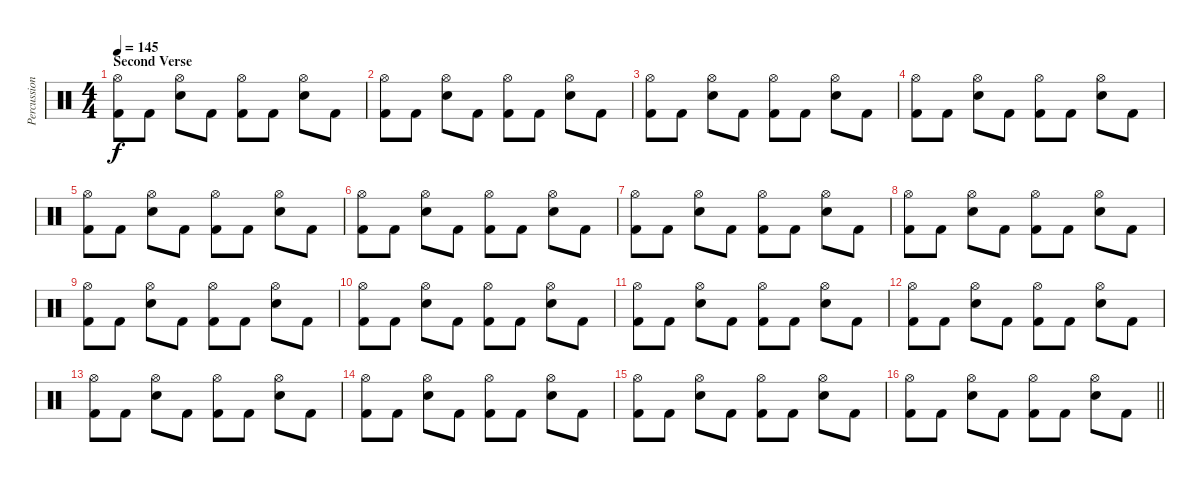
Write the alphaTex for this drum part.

\track ("Percussion" "Percussion") {instrument percussion}
\staff {score}
\articulation defaults
\ts (4 4)
\section ("" "Second Verse")
\tempo 145
\clef neutral
\ks c
("Hi-Hat (open)" "Kick (hit) 2").8{dy f} "Kick (hit) 2".8 ("Hi-Hat (open)" "Electric Snare (hit)").8 "Kick (hit) 2".8 ("Hi-Hat (open)" "Kick (hit) 2").8 "Kick (hit) 2".8 ("Hi-Hat (open)" "Electric Snare (hit)").8 "Kick (hit) 2".8 |
("Hi-Hat (open)" "Kick (hit) 2").8 "Kick (hit) 2".8 ("Hi-Hat (open)" "Electric Snare (hit)").8 "Kick (hit) 2".8 ("Hi-Hat (open)" "Kick (hit) 2").8 "Kick (hit) 2".8 ("Hi-Hat (open)" "Electric Snare (hit)").8 "Kick (hit) 2".8 |
("Hi-Hat (open)" "Kick (hit) 2").8 "Kick (hit) 2".8 ("Hi-Hat (open)" "Electric Snare (hit)").8 "Kick (hit) 2".8 ("Hi-Hat (open)" "Kick (hit) 2").8 "Kick (hit) 2".8 ("Hi-Hat (open)" "Electric Snare (hit)").8 "Kick (hit) 2".8 |
("Hi-Hat (open)" "Kick (hit) 2").8 "Kick (hit) 2".8 ("Hi-Hat (open)" "Electric Snare (hit)").8 "Kick (hit) 2".8 ("Hi-Hat (open)" "Kick (hit) 2").8 "Kick (hit) 2".8 ("Hi-Hat (open)" "Electric Snare (hit)").8 "Kick (hit) 2".8 |
("Hi-Hat (open)" "Kick (hit) 2").8 "Kick (hit) 2".8 ("Hi-Hat (open)" "Electric Snare (hit)").8 "Kick (hit) 2".8 ("Hi-Hat (open)" "Kick (hit) 2").8 "Kick (hit) 2".8 ("Hi-Hat (open)" "Electric Snare (hit)").8 "Kick (hit) 2".8 |
("Hi-Hat (open)" "Kick (hit) 2").8 "Kick (hit) 2".8 ("Hi-Hat (open)" "Electric Snare (hit)").8 "Kick (hit) 2".8 ("Hi-Hat (open)" "Kick (hit) 2").8 "Kick (hit) 2".8 ("Hi-Hat (open)" "Electric Snare (hit)").8 "Kick (hit) 2".8 |
("Hi-Hat (open)" "Kick (hit) 2").8 "Kick (hit) 2".8 ("Hi-Hat (open)" "Electric Snare (hit)").8 "Kick (hit) 2".8 ("Hi-Hat (open)" "Kick (hit) 2").8 "Kick (hit) 2".8 ("Hi-Hat (open)" "Electric Snare (hit)").8 "Kick (hit) 2".8 |
("Hi-Hat (open)" "Kick (hit) 2").8 "Kick (hit) 2".8 ("Hi-Hat (open)" "Electric Snare (hit)").8 "Kick (hit) 2".8 ("Hi-Hat (open)" "Kick (hit) 2").8 "Kick (hit) 2".8 ("Hi-Hat (open)" "Electric Snare (hit)").8 "Kick (hit) 2".8 |
("Hi-Hat (open)" "Kick (hit) 2").8 "Kick (hit) 2".8 ("Hi-Hat (open)" "Electric Snare (hit)").8 "Kick (hit) 2".8 ("Hi-Hat (open)" "Kick (hit) 2").8 "Kick (hit) 2".8 ("Hi-Hat (open)" "Electric Snare (hit)").8 "Kick (hit) 2".8 |
("Hi-Hat (open)" "Kick (hit) 2").8 "Kick (hit) 2".8 ("Hi-Hat (open)" "Electric Snare (hit)").8 "Kick (hit) 2".8 ("Hi-Hat (open)" "Kick (hit) 2").8 "Kick (hit) 2".8 ("Hi-Hat (open)" "Electric Snare (hit)").8 "Kick (hit) 2".8 |
("Hi-Hat (open)" "Kick (hit) 2").8 "Kick (hit) 2".8 ("Hi-Hat (open)" "Electric Snare (hit)").8 "Kick (hit) 2".8 ("Hi-Hat (open)" "Kick (hit) 2").8 "Kick (hit) 2".8 ("Hi-Hat (open)" "Electric Snare (hit)").8 "Kick (hit) 2".8 |
("Hi-Hat (open)" "Kick (hit) 2").8 "Kick (hit) 2".8 ("Hi-Hat (open)" "Electric Snare (hit)").8 "Kick (hit) 2".8 ("Hi-Hat (open)" "Kick (hit) 2").8 "Kick (hit) 2".8 ("Hi-Hat (open)" "Electric Snare (hit)").8 "Kick (hit) 2".8 |
("Hi-Hat (open)" "Kick (hit) 2").8 "Kick (hit) 2".8 ("Hi-Hat (open)" "Electric Snare (hit)").8 "Kick (hit) 2".8 ("Hi-Hat (open)" "Kick (hit) 2").8 "Kick (hit) 2".8 ("Hi-Hat (open)" "Electric Snare (hit)").8 "Kick (hit) 2".8 |
("Hi-Hat (open)" "Kick (hit) 2").8 "Kick (hit) 2".8 ("Hi-Hat (open)" "Electric Snare (hit)").8 "Kick (hit) 2".8 ("Hi-Hat (open)" "Kick (hit) 2").8 "Kick (hit) 2".8 ("Hi-Hat (open)" "Electric Snare (hit)").8 "Kick (hit) 2".8 |
("Hi-Hat (open)" "Kick (hit) 2").8 "Kick (hit) 2".8 ("Hi-Hat (open)" "Electric Snare (hit)").8 "Kick (hit) 2".8 ("Hi-Hat (open)" "Kick (hit) 2").8 "Kick (hit) 2".8 ("Hi-Hat (open)" "Electric Snare (hit)").8 "Kick (hit) 2".8 |
\barLineRight lightlight
("Hi-Hat (open)" "Kick (hit) 2").8 "Kick (hit) 2".8 ("Hi-Hat (open)" "Electric Snare (hit)").8 "Kick (hit) 2".8 ("Hi-Hat (open)" "Kick (hit) 2").8 "Kick (hit) 2".8 ("Hi-Hat (open)" "Electric Snare (hit)").8 "Kick (hit) 2".8
